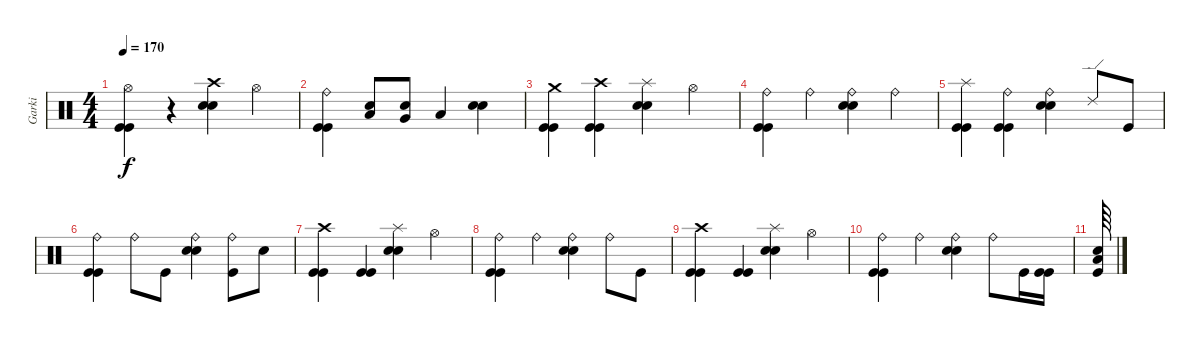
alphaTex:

\track ("Garki" "Garki") {instrument percussion}
\staff {score}
\articulation defaults
\ts (4 4)
\tempo 170
\clef neutral
\ks c
("Kick (hit)" "Kick (hit)" "Hi-Hat (open)").4{dy f} r.4 ("Electric Snare (hit)" "Electric Snare (hit)" "Crash high (hit)").4 "Hi-Hat (open)".4 |
("Kick (hit)" "Kick (hit)" "Ride (bell)").4 ("Low Tom (hit)" "Electric Snare (hit)").8 ("Very Low Tom (hit)" "Electric Snare (hit)").8 "Low Floor Tom (hit)".4 ("Electric Snare (hit)" "Electric Snare (hit)").4 |
("Kick (hit)" "Kick (hit)" "Crash medium (hit)").4 ("Kick (hit)" "Kick (hit)" "Crash high (hit)").4 ("Electric Snare (hit)" "Electric Snare (hit)" "Splash (hit)").4 "Hi-Hat (open)".4 |
("Kick (hit)" "Kick (hit)" "Ride (bell)").4 "Ride (bell)".4 ("Electric Snare (hit)" "Electric Snare (hit)" "Ride (bell)").4 "Ride (bell)".4 |
("Kick (hit)" "Kick (hit)" "Splash (hit)").4 ("Kick (hit)" "Kick (hit)" "Ride (bell)").4 ("Electric Snare (hit)" "Electric Snare (hit)" "Ride (bell)").4 "Ride (edge) 2".8 "Kick (hit)".8 |
("Kick (hit)" "Kick (hit)" "Ride (bell)").4 "Ride (bell)".8 "Kick (hit)".8 ("Electric Snare (hit)" "Electric Snare (hit)" "Ride (bell)").4 ("Kick (hit)" "Ride (bell)").8 "Electric Snare (hit)".8 |
("Kick (hit)" "Kick (hit)" "Crash high (hit)").4 ("Kick (hit)" "Kick (hit)").4 ("Electric Snare (hit)" "Electric Snare (hit)" "Splash (hit)").4 "Hi-Hat (open)".4 |
("Kick (hit)" "Kick (hit)" "Ride (bell)").4 "Ride (bell)".4 ("Electric Snare (hit)" "Electric Snare (hit)" "Ride (bell)").4 "Ride (bell)".8 "Kick (hit)".8 |
("Kick (hit)" "Kick (hit)" "Crash high (hit)").4 ("Kick (hit)" "Kick (hit)").4 ("Electric Snare (hit)" "Electric Snare (hit)" "Splash (hit)").4 "Hi-Hat (open)".4 |
("Kick (hit)" "Kick (hit)" "Ride (bell)").4 "Ride (bell)".4 ("Electric Snare (hit)" "Electric Snare (hit)" "Ride (bell)").4 "Ride (bell)".8 "Kick (hit)".16 ("Kick (hit)" "Kick (hit)").16 |
("Kick (hit)" "Electric Snare (hit)" "Low Tom (hit)").64
